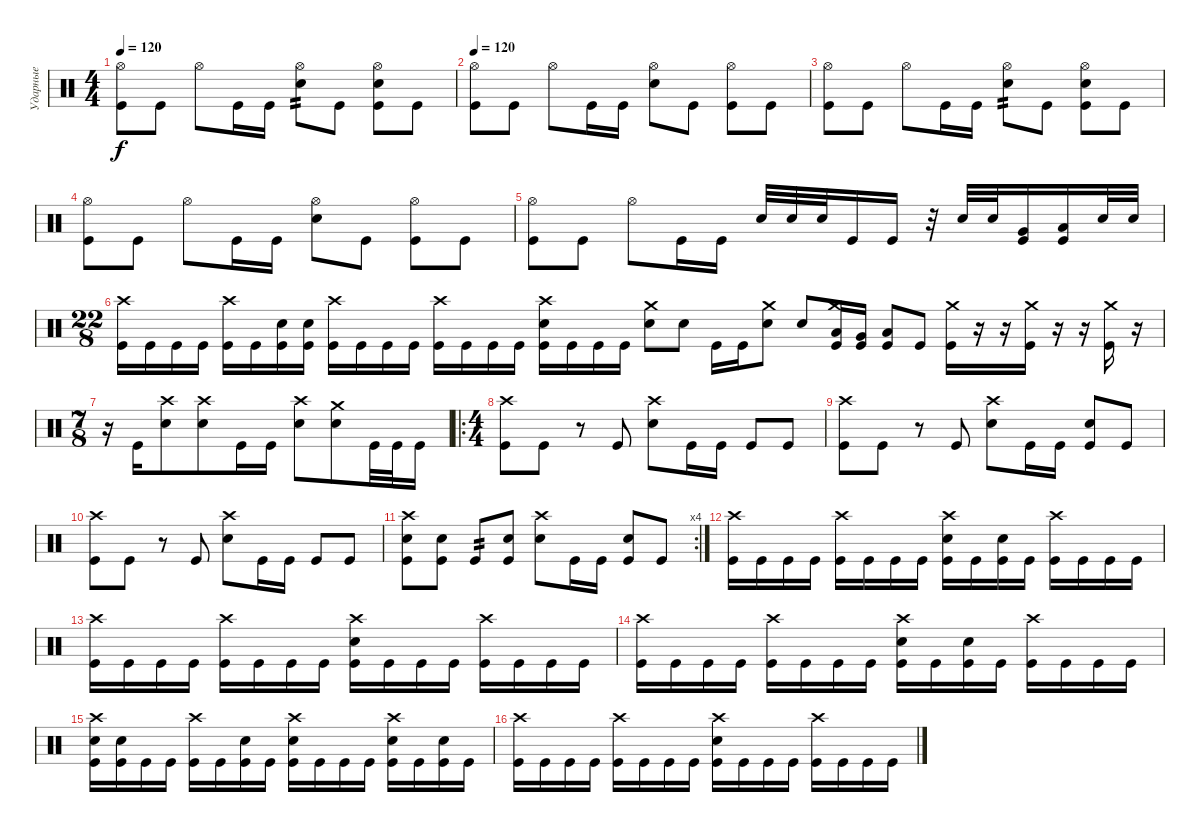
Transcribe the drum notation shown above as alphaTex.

\track ("Ударные" "Ударные") {instrument percussion}
\staff {score}
\articulation defaults
\ts (4 4)
\tempo 120
\clef neutral
\ks c
("Hi-Hat (open)" "Kick (hit)").8{dy f} "Kick (hit)".8 "Hi-Hat (open)".8 "Kick (hit)".16 "Kick (hit)".16 ("Hi-Hat (open)" "Electric Snare (hit)").8{tp 2} "Kick (hit)".8 ("Hi-Hat (open)" "Electric Snare (hit)" "Kick (hit)").8 "Kick (hit)".8 |
\tempo 120
("Hi-Hat (open)" "Kick (hit)").8 "Kick (hit)".8 "Hi-Hat (open)".8 "Kick (hit)".16 "Kick (hit)".16 ("Hi-Hat (open)" "Electric Snare (hit)").8 "Kick (hit)".8 ("Hi-Hat (open)" "Kick (hit)").8 "Kick (hit)".8 |
("Hi-Hat (open)" "Kick (hit)").8 "Kick (hit)".8 "Hi-Hat (open)".8 "Kick (hit)".16 "Kick (hit)".16 ("Hi-Hat (open)" "Electric Snare (hit)").8{tp 2} "Kick (hit)".8 ("Hi-Hat (open)" "Electric Snare (hit)" "Kick (hit)").8 "Kick (hit)".8 |
("Hi-Hat (open)" "Kick (hit)").8 "Kick (hit)".8 "Hi-Hat (open)".8 "Kick (hit)".16 "Kick (hit)".16 ("Hi-Hat (open)" "Electric Snare (hit)").8 "Kick (hit)".8 ("Hi-Hat (open)" "Kick (hit)").8 "Kick (hit)".8 |
("Hi-Hat (open)" "Kick (hit)").8 "Kick (hit)".8 "Hi-Hat (open)".8 "Kick (hit)".16 "Kick (hit)".16 "Electric Snare (hit)".32 "Electric Snare (hit)".32 "Electric Snare (hit)".32 "Kick (hit)".16 "Kick (hit)".16 r.32 "Electric Snare (hit)".32 "Electric Snare (hit)".32 ("Very Low Tom (hit)" "Kick (hit)").16 ("Low Floor Tom (hit)" "Kick (hit)").16 "Electric Snare (hit)".32 "Electric Snare (hit)".32 |
\ts (22 8)
("Crash high (hit)" "Kick (hit)").16 "Kick (hit)".16 "Kick (hit)".16 "Kick (hit)".16 ("Crash high (hit)" "Kick (hit)").16 "Kick (hit)".16 ("Electric Snare (hit)" "Kick (hit)").16 ("Electric Snare (hit)" "Kick (hit)").16 ("Crash high (hit)" "Kick (hit)").16 "Kick (hit)".16 "Kick (hit)".16 "Kick (hit)".16 ("Crash high (hit)" "Kick (hit)").16 "Kick (hit)".16 "Kick (hit)".16 "Kick (hit)".16 ("Crash high (hit)" "Electric Snare (hit)" "Kick (hit)").16 "Kick (hit)".16 "Kick (hit)".16 "Kick (hit)".16 ("Crash medium (hit)" "Electric Snare (hit)").8 "Electric Snare (hit)".8 "Kick (hit)".16 "Kick (hit)".16 ("Crash medium (hit)" "Electric Snare (hit)").8 "Electric Snare (hit)".8 ("Crash medium (hit)" "Low Tom (hit)" "Kick (hit)").16 ("Very Low Tom (hit)" "Kick (hit)").16 ("Low Floor Tom (hit)" "Kick (hit)").8 "Kick (hit)".8 ("Crash medium (hit)" "Kick (hit)").16 r.16 r.16 ("Crash medium (hit)" "Kick (hit)").16 r.16 r.16 ("Crash medium (hit)" "Kick (hit)").16 r.16 |
\ts (7 8)
r.16 "Kick (hit)".16 ("Crash high (hit)" "Electric Snare (hit)").8 ("Crash high (hit)" "Electric Snare (hit)").8 "Kick (hit)".16 "Kick (hit)".16 ("Crash high (hit)" "Electric Snare (hit)").8 ("Crash medium (hit)" "Electric Snare (hit)").8 "Kick (hit)".32 "Kick (hit)".32 "Kick (hit)".16 |
\ro
\ts (4 4)
("Crash high (hit)" "Kick (hit)").8 "Kick (hit)".8 r.8 "Kick (hit)".8 ("Crash high (hit)" "Electric Snare (hit)").8 "Kick (hit)".16 "Kick (hit)".16 "Kick (hit)".8 "Kick (hit)".8 |
("Crash high (hit)" "Kick (hit)").8 "Kick (hit)".8 r.8 "Kick (hit)".8 ("Crash high (hit)" "Electric Snare (hit)").8 "Kick (hit)".16 "Kick (hit)".16 ("Electric Snare (hit)" "Kick (hit)").8 "Kick (hit)".8 |
("Crash high (hit)" "Kick (hit)").8 "Kick (hit)".8 r.8 "Kick (hit)".8 ("Crash high (hit)" "Electric Snare (hit)").8 "Kick (hit)".16 "Kick (hit)".16 "Kick (hit)".8 "Kick (hit)".8 |
\rc 4
("Crash high (hit)" "Electric Snare (hit)" "Kick (hit)").8 ("Electric Snare (hit)" "Kick (hit)").8 "Kick (hit)".8{tp 2} ("Electric Snare (hit)" "Kick (hit)").8 ("Crash high (hit)" "Electric Snare (hit)").8 "Kick (hit)".16 "Kick (hit)".16 ("Electric Snare (hit)" "Kick (hit)").8 "Kick (hit)".8 |
("Crash high (hit)" "Kick (hit)").16 "Kick (hit)".16 "Kick (hit)".16 "Kick (hit)".16 ("Crash high (hit)" "Kick (hit)").16 "Kick (hit)".16 "Kick (hit)".16 "Kick (hit)".16 ("Crash high (hit)" "Electric Snare (hit)" "Kick (hit)").16 "Kick (hit)".16 ("Electric Snare (hit)" "Kick (hit)").16 "Kick (hit)".16 ("Crash high (hit)" "Kick (hit)").16 "Kick (hit)".16 "Kick (hit)".16 "Kick (hit)".16 |
("Crash high (hit)" "Kick (hit)").16 "Kick (hit)".16 "Kick (hit)".16 "Kick (hit)".16 ("Crash high (hit)" "Kick (hit)").16 "Kick (hit)".16 "Kick (hit)".16 "Kick (hit)".16 ("Crash high (hit)" "Electric Snare (hit)" "Kick (hit)").16 "Kick (hit)".16 "Kick (hit)".16 "Kick (hit)".16 ("Crash high (hit)" "Kick (hit)").16 "Kick (hit)".16 "Kick (hit)".16 "Kick (hit)".16 |
("Crash high (hit)" "Kick (hit)").16 "Kick (hit)".16 "Kick (hit)".16 "Kick (hit)".16 ("Crash high (hit)" "Kick (hit)").16 "Kick (hit)".16 "Kick (hit)".16 "Kick (hit)".16 ("Crash high (hit)" "Electric Snare (hit)" "Kick (hit)").16 "Kick (hit)".16 ("Electric Snare (hit)" "Kick (hit)").16 "Kick (hit)".16 ("Crash high (hit)" "Kick (hit)").16 "Kick (hit)".16 "Kick (hit)".16 "Kick (hit)".16 |
("Crash high (hit)" "Electric Snare (hit)" "Kick (hit)").16 ("Electric Snare (hit)" "Kick (hit)").16 "Kick (hit)".16 "Kick (hit)".16 ("Crash high (hit)" "Kick (hit)").16 "Kick (hit)".16 ("Electric Snare (hit)" "Kick (hit)").16 "Kick (hit)".16 ("Crash high (hit)" "Electric Snare (hit)" "Kick (hit)").16 "Kick (hit)".16 "Kick (hit)".16 "Kick (hit)".16 ("Crash high (hit)" "Electric Snare (hit)" "Kick (hit)").16 "Kick (hit)".16 ("Electric Snare (hit)" "Kick (hit)").16 "Kick (hit)".16 |
("Crash high (hit)" "Kick (hit)").16 "Kick (hit)".16 "Kick (hit)".16 "Kick (hit)".16 ("Crash high (hit)" "Kick (hit)").16 "Kick (hit)".16 "Kick (hit)".16 "Kick (hit)".16 ("Crash high (hit)" "Electric Snare (hit)" "Kick (hit)").16 "Kick (hit)".16 "Kick (hit)".16 "Kick (hit)".16 ("Crash high (hit)" "Kick (hit)").16 "Kick (hit)".16 "Kick (hit)".16 "Kick (hit)".16
